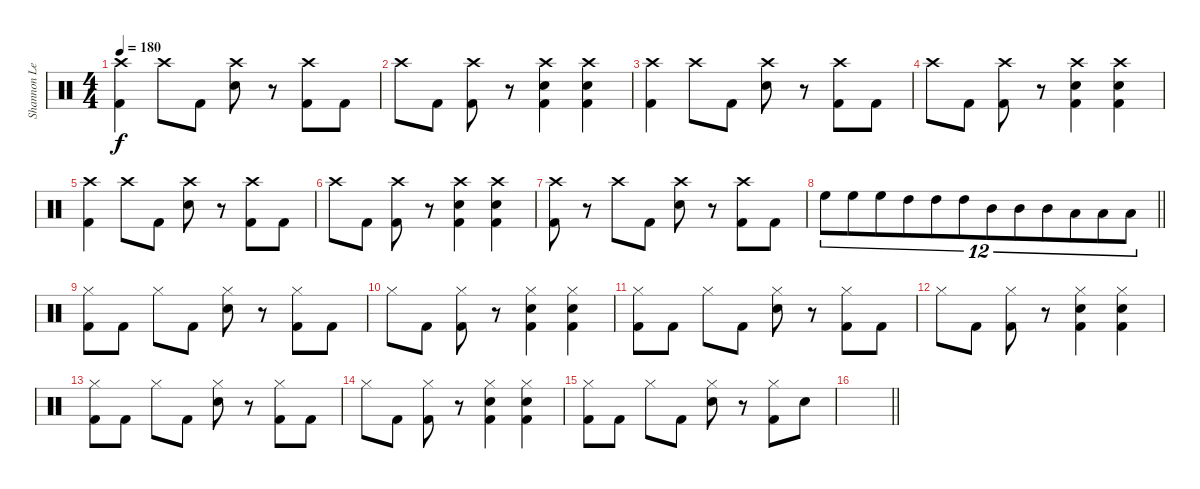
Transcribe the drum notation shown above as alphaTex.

\track ("Shannon Leto" "Shannon Le") {instrument percussion}
\staff {score}
\articulation defaults
\ts (4 4)
\tempo 180
\clef neutral
\ks c
("Crash high (hit)" "Kick (hit) 2").4{dy f} "Crash high (hit)".8 "Kick (hit) 2".8 ("Crash high (hit)" "Snare (hit) 2").8 r.8 ("Crash high (hit)" "Kick (hit) 2").8 "Kick (hit) 2".8 |
"Crash high (hit)".8 "Kick (hit) 2".8 ("Crash high (hit)" "Kick (hit) 2").8 r.8 ("Crash high (hit)" "Snare (hit) 2" "Kick (hit) 2").4 ("Crash high (hit)" "Snare (hit) 2" "Kick (hit) 2").4 |
("Crash high (hit)" "Kick (hit) 2").4 "Crash high (hit)".8 "Kick (hit) 2".8 ("Crash high (hit)" "Snare (hit) 2").8 r.8 ("Crash high (hit)" "Kick (hit) 2").8 "Kick (hit) 2".8 |
"Crash high (hit)".8 "Kick (hit) 2".8 ("Crash high (hit)" "Kick (hit) 2").8 r.8 ("Crash high (hit)" "Snare (hit) 2" "Kick (hit) 2").4 ("Crash high (hit)" "Snare (hit) 2" "Kick (hit) 2").4 |
("Crash high (hit)" "Kick (hit) 2").4 "Crash high (hit)".8 "Kick (hit) 2".8 ("Crash high (hit)" "Snare (hit) 2").8 r.8 ("Crash high (hit)" "Kick (hit) 2").8 "Kick (hit) 2".8 |
"Crash high (hit)".8 "Kick (hit) 2".8 ("Crash high (hit)" "Kick (hit) 2").8 r.8 ("Crash high (hit)" "Snare (hit) 2" "Kick (hit) 2").4 ("Crash high (hit)" "Snare (hit) 2" "Kick (hit) 2").4 |
("Crash high (hit)" "Kick (hit) 2").8 r.8 "Crash high (hit)".8 "Kick (hit) 2".8 ("Crash high (hit)" "Snare (hit) 2").8 r.8 ("Crash high (hit)" "Kick (hit) 2").8 "Kick (hit) 2".8 |
\barLineRight lightlight "High Floor Tom (hit)".8{tu (12 8)} "High Floor Tom (hit)".8{tu (12 8)} "High Floor Tom (hit)".8{tu (12 8)} "High Tom (hit)".8{tu (12 8)} "High Tom (hit)".8{tu (12 8)} "High Tom (hit)".8{tu (12 8)} "Mid Tom (hit)".8{tu (12 8)} "Mid Tom (hit)".8{tu (12 8)} "Mid Tom (hit)".8{tu (12 8)} "Low Tom (hit)".8{tu (12 8)} "Low Tom (hit)".8{tu (12 8)} "Low Tom (hit)".8{tu (12 8)}
|
("Hi-Hat (closed)" "Kick (hit) 2").8 "Kick (hit) 2".8 "Hi-Hat (closed)".8 "Kick (hit) 2".8 ("Hi-Hat (closed)" "Snare (hit) 2").8 r.8 ("Hi-Hat (closed)" "Kick (hit) 2").8 "Kick (hit) 2".8 |
"Hi-Hat (closed)".8 "Kick (hit) 2".8 ("Hi-Hat (closed)" "Kick (hit) 2").8 r.8 ("Hi-Hat (closed)" "Snare (hit) 2" "Kick (hit) 2").4 ("Hi-Hat (closed)" "Snare (hit) 2" "Kick (hit) 2").4 |
("Hi-Hat (closed)" "Kick (hit) 2").8 "Kick (hit) 2".8 "Hi-Hat (closed)".8 "Kick (hit) 2".8 ("Hi-Hat (closed)" "Snare (hit) 2").8 r.8 ("Hi-Hat (closed)" "Kick (hit) 2").8 "Kick (hit) 2".8 |
"Hi-Hat (closed)".8 "Kick (hit) 2".8 ("Hi-Hat (closed)" "Kick (hit) 2").8 r.8 ("Hi-Hat (closed)" "Snare (hit) 2" "Kick (hit) 2").4 ("Hi-Hat (closed)" "Snare (hit) 2" "Kick (hit) 2").4 |
("Hi-Hat (closed)" "Kick (hit) 2").8 "Kick (hit) 2".8 "Hi-Hat (closed)".8 "Kick (hit) 2".8 ("Hi-Hat (closed)" "Snare (hit) 2").8 r.8 ("Hi-Hat (closed)" "Kick (hit) 2").8 "Kick (hit) 2".8 |
"Hi-Hat (closed)".8 "Kick (hit) 2".8 ("Hi-Hat (closed)" "Kick (hit) 2").8 r.8 ("Hi-Hat (closed)" "Snare (hit) 2" "Kick (hit) 2").4 ("Hi-Hat (closed)" "Snare (hit) 2" "Kick (hit) 2").4 |
("Hi-Hat (closed)" "Kick (hit) 2").8 "Kick (hit) 2".8 "Hi-Hat (closed)".8 "Kick (hit) 2".8 ("Hi-Hat (closed)" "Snare (hit) 2").8 r.8 ("Hi-Hat (closed)" "Kick (hit) 2").8 "Snare (hit) 2".8 |
\barLineRight lightlight
